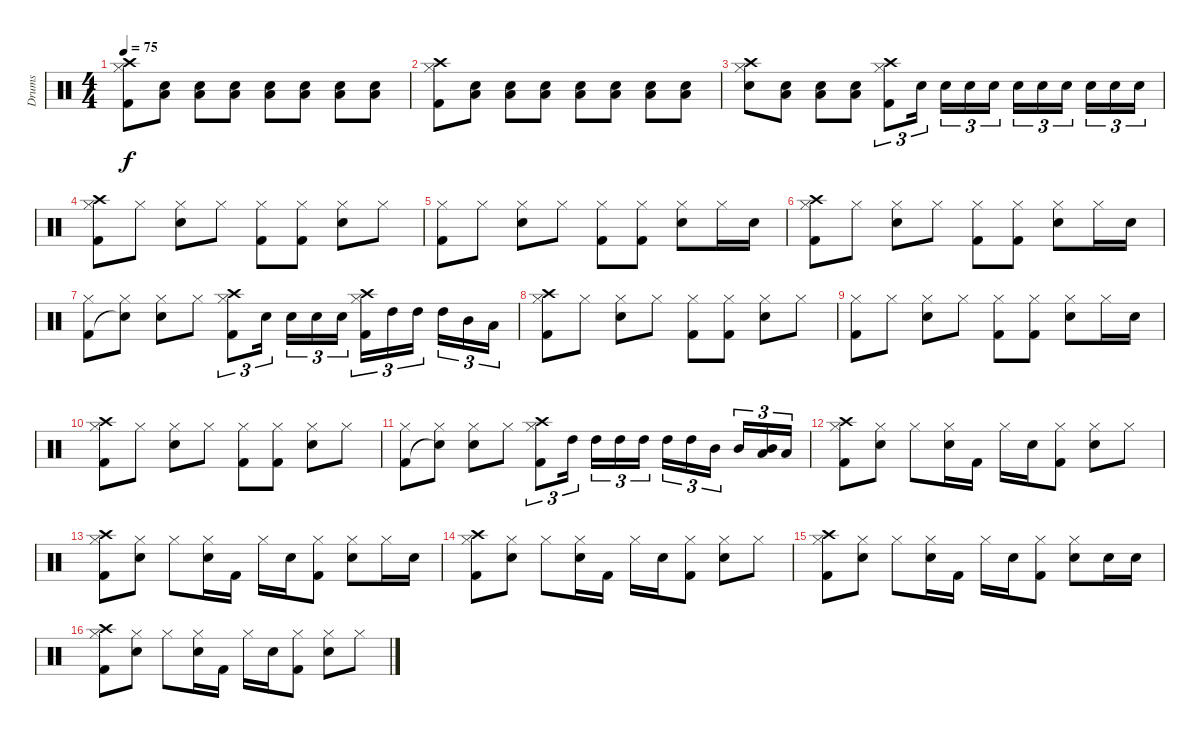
\track ("Drums" "Drums") {instrument percussion}
\staff {score}
\articulation defaults
\ts (4 4)
\tempo 75
\clef neutral
\ks c
("Hi-Hat (closed)" "Crash high (hit)" "Kick (hit) 2").8{dy f} ("Electric Snare (hit)" "Low Tom (hit)").8 ("Electric Snare (hit)" "Low Tom (hit)").8 ("Electric Snare (hit)" "Low Tom (hit)").8 ("Electric Snare (hit)" "Low Tom (hit)").8 ("Electric Snare (hit)" "Low Tom (hit)").8 ("Electric Snare (hit)" "Low Tom (hit)").8 ("Electric Snare (hit)" "Low Tom (hit)").8 |
("Hi-Hat (closed)" "Crash high (hit)" "Kick (hit) 2").8 ("Electric Snare (hit)" "Low Tom (hit)").8 ("Electric Snare (hit)" "Low Tom (hit)").8 ("Electric Snare (hit)" "Low Tom (hit)").8 ("Electric Snare (hit)" "Low Tom (hit)").8 ("Electric Snare (hit)" "Low Tom (hit)").8 ("Electric Snare (hit)" "Low Tom (hit)").8 ("Electric Snare (hit)" "Low Tom (hit)").8 |
("Crash high (hit)" "Hi-Hat (closed)" "Electric Snare (hit)").8 ("Low Tom (hit)" "Electric Snare (hit)").8 ("Low Tom (hit)" "Electric Snare (hit)").8 ("Low Tom (hit)" "Electric Snare (hit)").8 ("Crash high (hit)" "Hi-Hat (closed)" "Kick (hit) 2").8{tu (3 2)} "Electric Snare (hit)".16{tu (3 2)} "Electric Snare (hit)".16{tu (3 2)} "Electric Snare (hit)".16{tu (3 2)} "Electric Snare (hit)".16{tu (3 2)} "Electric Snare (hit)".16{tu (3 2)} "Electric Snare (hit)".16{tu (3 2)} "Electric Snare (hit)".16{tu (3 2)} "Electric Snare (hit)".16{tu (3 2)} "Electric Snare (hit)".16{tu (3 2)} "Electric Snare (hit)".16{tu (3 2)} |
("Kick (hit) 2" "Crash high (hit)" "Hi-Hat (closed)").8 "Hi-Hat (closed)".8 ("Electric Snare (hit)" "Hi-Hat (closed)").8 "Hi-Hat (closed)".8 ("Kick (hit) 2" "Hi-Hat (closed)").8 ("Kick (hit) 2" "Hi-Hat (closed)").8 ("Electric Snare (hit)" "Hi-Hat (closed)").8 "Hi-Hat (closed)".8 |
("Hi-Hat (closed)" "Kick (hit) 2").8 "Hi-Hat (closed)".8 ("Hi-Hat (closed)" "Electric Snare (hit)").8 "Hi-Hat (closed)".8 ("Hi-Hat (closed)" "Kick (hit) 2").8 ("Hi-Hat (closed)" "Kick (hit) 2").8 ("Hi-Hat (closed)" "Electric Snare (hit)").8 "Hi-Hat (closed)".16 "Electric Snare (hit)".16 |
("Hi-Hat (closed)" "Kick (hit) 2" "Crash high (hit)").8 "Hi-Hat (closed)".8 ("Hi-Hat (closed)" "Electric Snare (hit)").8 "Hi-Hat (closed)".8 ("Hi-Hat (closed)" "Kick (hit) 2").8 ("Hi-Hat (closed)" "Kick (hit) 2").8 ("Hi-Hat (closed)" "Electric Snare (hit)").8 "Hi-Hat (closed)".16 "Electric Snare (hit)".16 |
("Hi-Hat (closed)" "Kick (hit) 2").8 ("Hi-Hat (closed)" "Snare (hit)"{t}).8 ("Electric Snare (hit)" "Hi-Hat (closed)").8 "Hi-Hat (closed)".8 ("Crash high (hit)" "Hi-Hat (closed)" "Kick (hit) 2").8{tu (3 2)} "Electric Snare (hit)".16{tu (3 2)} "Electric Snare (hit)".16{tu (3 2)} "Electric Snare (hit)".16{tu (3 2)} "Electric Snare (hit)".16{tu (3 2)} ("Crash high (hit)" "Hi-Hat (closed)" "Kick (hit) 2").16{tu (3 2)} "High Tom (hit)".16{tu (3 2)} "High Tom (hit)".16{tu (3 2)} "High Tom (hit)".16{tu (3 2)} "Mid Tom (hit)".16{tu (3 2)} "Low Tom (hit)".16{tu (3 2)} |
("Kick (hit) 2" "Crash high (hit)" "Hi-Hat (closed)").8 "Hi-Hat (closed)".8 ("Electric Snare (hit)" "Hi-Hat (closed)").8 "Hi-Hat (closed)".8 ("Kick (hit) 2" "Hi-Hat (closed)").8 ("Kick (hit) 2" "Hi-Hat (closed)").8 ("Electric Snare (hit)" "Hi-Hat (closed)").8 "Hi-Hat (closed)".8 |
("Hi-Hat (closed)" "Kick (hit) 2").8 "Hi-Hat (closed)".8 ("Hi-Hat (closed)" "Electric Snare (hit)").8 "Hi-Hat (closed)".8 ("Hi-Hat (closed)" "Kick (hit) 2").8 ("Hi-Hat (closed)" "Kick (hit) 2").8 ("Hi-Hat (closed)" "Electric Snare (hit)").8 "Hi-Hat (closed)".16 "Electric Snare (hit)".16 |
("Kick (hit) 2" "Crash high (hit)" "Hi-Hat (closed)").8 "Hi-Hat (closed)".8 ("Electric Snare (hit)" "Hi-Hat (closed)").8 "Hi-Hat (closed)".8 ("Kick (hit) 2" "Hi-Hat (closed)").8 ("Kick (hit) 2" "Hi-Hat (closed)").8 ("Electric Snare (hit)" "Hi-Hat (closed)").8 "Hi-Hat (closed)".8 |
("Hi-Hat (closed)" "Kick (hit) 2").8 ("Hi-Hat (closed)" "Snare (hit)"{t}).8 ("Electric Snare (hit)" "Hi-Hat (closed)").8 "Hi-Hat (closed)".8 ("Crash high (hit)" "Hi-Hat (closed)" "Kick (hit) 2").8{tu (3 2)} "High Tom (hit)".16{tu (3 2)} "High Tom (hit)".16{tu (3 2)} "High Tom (hit)".16{tu (3 2)} "High Tom (hit)".16{tu (3 2)} "High Tom (hit)".16{tu (3 2)} "High Tom (hit)".16{tu (3 2)} "Mid Tom (hit)".16{tu (3 2)} "Mid Tom (hit)".16{tu (3 2)} ("Mid Tom (hit)" "Low Tom (hit)").16{tu (3 2)} "Low Tom (hit)".16{tu (3 2)} |
("Crash high (hit)" "Hi-Hat (closed)" "Kick (hit) 2").8 ("Hi-Hat (closed)" "Electric Snare (hit)").8 "Hi-Hat (closed)".8 ("Hi-Hat (closed)" "Electric Snare (hit)").16 "Kick (hit) 2".16 "Hi-Hat (closed)".16 "Electric Snare (hit)".16 ("Hi-Hat (closed)" "Kick (hit) 2").8 ("Hi-Hat (closed)" "Electric Snare (hit)").8 "Hi-Hat (closed)".8 |
("Crash high (hit)" "Hi-Hat (closed)" "Kick (hit) 2").8 ("Hi-Hat (closed)" "Electric Snare (hit)").8 "Hi-Hat (closed)".8 ("Hi-Hat (closed)" "Electric Snare (hit)").16 "Kick (hit) 2".16 "Hi-Hat (closed)".16 "Electric Snare (hit)".16 ("Hi-Hat (closed)" "Kick (hit) 2").8 ("Hi-Hat (closed)" "Electric Snare (hit)").8 "Hi-Hat (closed)".16 "Electric Snare (hit)".16 |
("Crash high (hit)" "Hi-Hat (closed)" "Kick (hit) 2").8 ("Hi-Hat (closed)" "Electric Snare (hit)").8 "Hi-Hat (closed)".8 ("Hi-Hat (closed)" "Electric Snare (hit)").16 "Kick (hit) 2".16 "Hi-Hat (closed)".16 "Electric Snare (hit)".16 ("Hi-Hat (closed)" "Kick (hit) 2").8 ("Hi-Hat (closed)" "Electric Snare (hit)").8 "Hi-Hat (closed)".8 |
("Crash high (hit)" "Hi-Hat (closed)" "Kick (hit) 2").8 ("Hi-Hat (closed)" "Electric Snare (hit)").8 "Hi-Hat (closed)".8 ("Hi-Hat (closed)" "Electric Snare (hit)").16 "Kick (hit) 2".16 "Hi-Hat (closed)".16 "Electric Snare (hit)".16 ("Hi-Hat (closed)" "Kick (hit) 2").8 ("Hi-Hat (closed)" "Electric Snare (hit)").8 "Electric Snare (hit)".16 "Electric Snare (hit)".16 |
("Crash high (hit)" "Hi-Hat (closed)" "Kick (hit) 2").8 ("Hi-Hat (closed)" "Electric Snare (hit)").8 "Hi-Hat (closed)".8 ("Hi-Hat (closed)" "Electric Snare (hit)").16 "Kick (hit) 2".16 "Hi-Hat (closed)".16 "Electric Snare (hit)".16 ("Hi-Hat (closed)" "Kick (hit) 2").8 ("Hi-Hat (closed)" "Electric Snare (hit)").8 "Hi-Hat (closed)".8
